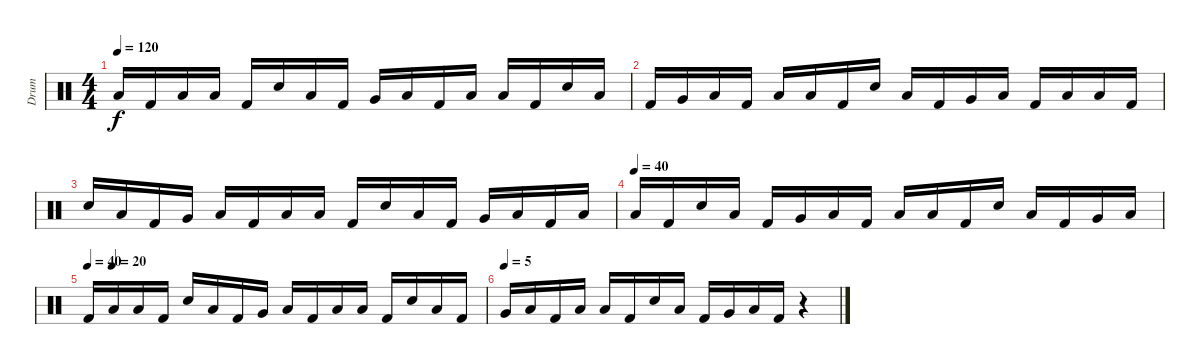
\track ("Drum" "Drum") {instrument percussion}
\staff {score}
\articulation defaults
\ts (4 4)
\tempo 120
\clef neutral
\ks c "Low Tom (hit)".16{dy f} "Kick (hit) 2".16 "Low Floor Tom (hit)".16 "Low Tom (hit)".16 "Kick (hit) 2".16 "Electric Snare (hit)".16 "Low Tom (hit)".16 "Kick (hit) 2".16 "Very Low Tom (hit)".16 "Low Tom (hit)".16 "Kick (hit) 2".16 "Low Floor Tom (hit)".16 "Low Tom (hit)".16 "Kick (hit) 2".16 "Electric Snare (hit)".16 "Low Tom (hit)".16
|
"Kick (hit) 2".16 "Very Low Tom (hit)".16 "Low Tom (hit)".16 "Kick (hit) 2".16 "Low Floor Tom (hit)".16 "Low Tom (hit)".16 "Kick (hit) 2".16 "Electric Snare (hit)".16 "Low Tom (hit)".16 "Kick (hit) 2".16 "Very Low Tom (hit)".16 "Low Tom (hit)".16 "Kick (hit) 2".16 "Low Floor Tom (hit)".16 "Low Tom (hit)".16 "Kick (hit) 2".16 |
"Electric Snare (hit)".16 "Low Tom (hit)".16 "Kick (hit) 2".16 "Very Low Tom (hit)".16 "Low Tom (hit)".16 "Kick (hit) 2".16 "Low Floor Tom (hit)".16 "Low Tom (hit)".16 "Kick (hit) 2".16 "Electric Snare (hit)".16 "Low Tom (hit)".16 "Kick (hit) 2".16 "Very Low Tom (hit)".16 "Low Tom (hit)".16 "Kick (hit) 2".16 "Low Floor Tom (hit)".16 |
\tempo (40)
"Low Tom (hit)".16 "Kick (hit) 2".16 "Electric Snare (hit)".16 "Low Tom (hit)".16 "Kick (hit) 2".16 "Very Low Tom (hit)".16 "Low Tom (hit)".16 "Kick (hit) 2".16 "Low Floor Tom (hit)".16 "Low Tom (hit)".16 "Kick (hit) 2".16 "Electric Snare (hit)".16 "Low Tom (hit)".16 "Kick (hit) 2".16 "Very Low Tom (hit)".16 "Low Tom (hit)".16 |
\tempo 40
\tempo (20 0.0625)
"Kick (hit) 2".16 "Low Floor Tom (hit)".16 "Low Tom (hit)".16 "Kick (hit) 2".16 "Electric Snare (hit)".16 "Low Tom (hit)".16 "Kick (hit) 2".16 "Very Low Tom (hit)".16 "Low Tom (hit)".16 "Kick (hit) 2".16 "Low Floor Tom (hit)".16 "Low Tom (hit)".16 "Kick (hit) 2".16 "Electric Snare (hit)".16 "Low Tom (hit)".16 "Kick (hit) 2".16 |
\tempo (5)
"Very Low Tom (hit)".16 "Low Tom (hit)".16 "Kick (hit) 2".16 "Low Floor Tom (hit)".16 "Low Tom (hit)".16 "Kick (hit) 2".16 "Electric Snare (hit)".16 "Low Tom (hit)".16 "Kick (hit) 2".16 "Very Low Tom (hit)".16 "Low Tom (hit)".16 "Kick (hit) 2".16 r.4
